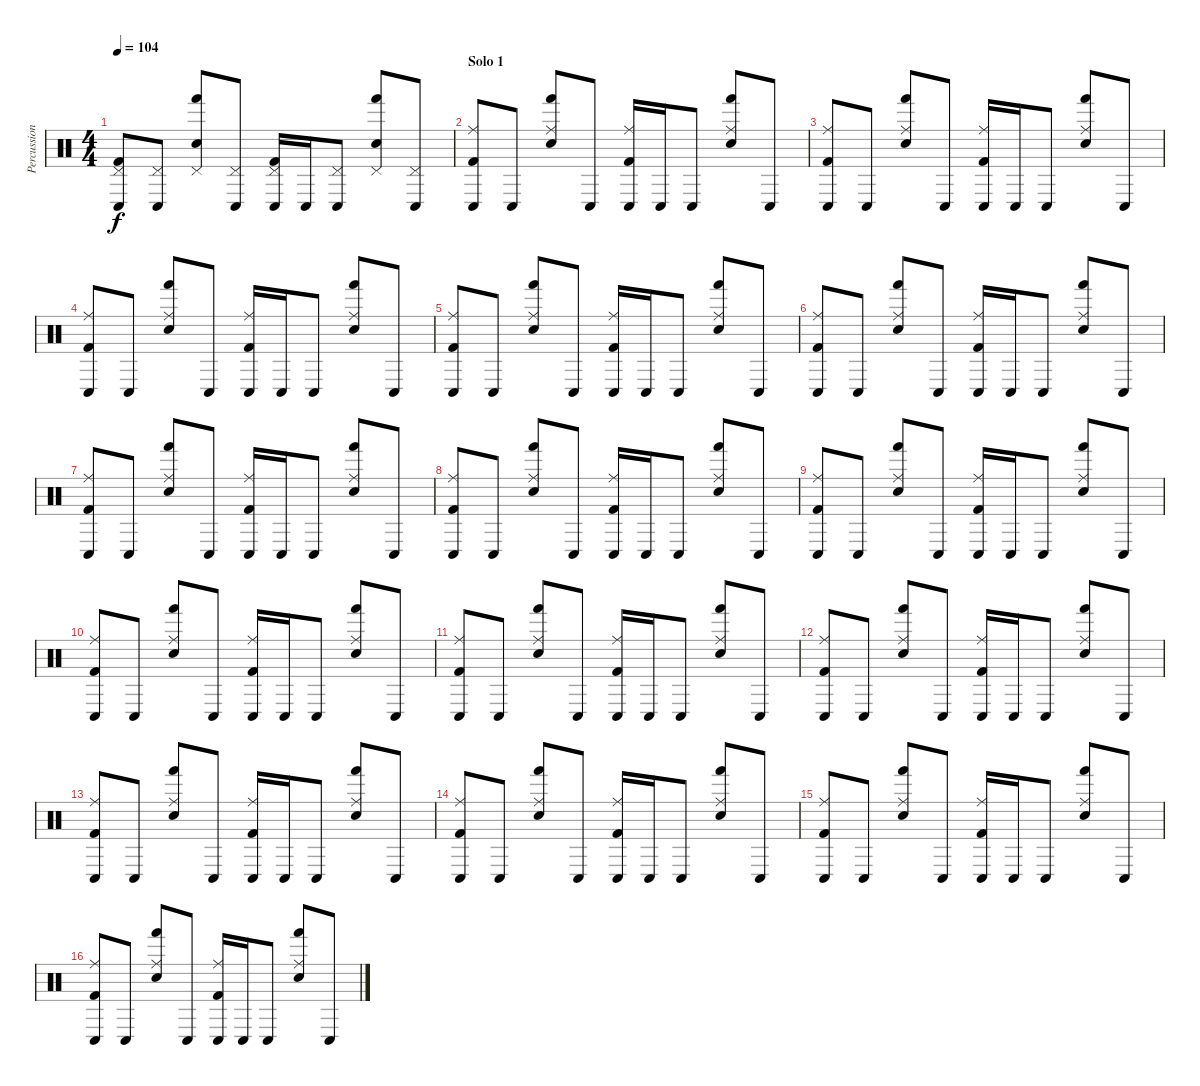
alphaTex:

\track ("Percussions" "Percussion") {instrument percussion}
\staff {score}
\articulation defaults
\ts (4 4)
\tempo 104
\clef neutral
\ks c
("Pedal Hi-Hat (hit)" "Conga low (hit)" "Kick (hit) 2").8{dy f} ("Pedal Hi-Hat (hit)" "Conga low (hit)").8 ("Pedal Hi-Hat (hit)" "Snare (hit) 2" "Hand (hit)").8 ("Pedal Hi-Hat (hit)" "Conga low (hit)").8 ("Pedal Hi-Hat (hit)" "Conga low (hit)" "Kick (hit) 2").16 "Conga low (hit)".16 ("Pedal Hi-Hat (hit)" "Conga low (hit)").8 ("Pedal Hi-Hat (hit)" "Snare (hit) 2" "Hand (hit)").8 ("Pedal Hi-Hat (hit)" "Conga low (hit)").8 |
\section ("" "Solo 1")
("Ride (middle)" "Conga low (hit)" "Kick (hit) 2").8 "Conga low (hit)".8 ("Ride (middle)" "Snare (hit) 2" "Hand (hit)").8 "Conga low (hit)".8 ("Ride (middle)" "Conga low (hit)" "Kick (hit) 2").16 "Conga low (hit)".16 "Conga low (hit)".8 ("Ride (middle)" "Snare (hit) 2" "Hand (hit)").8 "Conga low (hit)".8 |
("Ride (middle)" "Conga low (hit)" "Kick (hit) 2").8 "Conga low (hit)".8 ("Ride (middle)" "Snare (hit) 2" "Hand (hit)").8 "Conga low (hit)".8 ("Ride (middle)" "Conga low (hit)" "Kick (hit) 2").16 "Conga low (hit)".16 "Conga low (hit)".8 ("Ride (middle)" "Snare (hit) 2" "Hand (hit)").8 "Conga low (hit)".8 |
("Ride (middle)" "Conga low (hit)" "Kick (hit) 2").8 "Conga low (hit)".8 ("Ride (middle)" "Snare (hit) 2" "Hand (hit)").8 "Conga low (hit)".8 ("Ride (middle)" "Conga low (hit)" "Kick (hit) 2").16 "Conga low (hit)".16 "Conga low (hit)".8 ("Ride (middle)" "Snare (hit) 2" "Hand (hit)").8 "Conga low (hit)".8 |
("Ride (middle)" "Conga low (hit)" "Kick (hit) 2").8 "Conga low (hit)".8 ("Ride (middle)" "Snare (hit) 2" "Hand (hit)").8 "Conga low (hit)".8 ("Ride (middle)" "Conga low (hit)" "Kick (hit) 2").16 "Conga low (hit)".16 "Conga low (hit)".8 ("Ride (middle)" "Snare (hit) 2" "Hand (hit)").8 "Conga low (hit)".8 |
("Ride (middle)" "Conga low (hit)" "Kick (hit) 2").8 "Conga low (hit)".8 ("Ride (middle)" "Snare (hit) 2" "Hand (hit)").8 "Conga low (hit)".8 ("Ride (middle)" "Conga low (hit)" "Kick (hit) 2").16 "Conga low (hit)".16 "Conga low (hit)".8 ("Ride (middle)" "Snare (hit) 2" "Hand (hit)").8 "Conga low (hit)".8 |
("Ride (middle)" "Conga low (hit)" "Kick (hit) 2").8 "Conga low (hit)".8 ("Ride (middle)" "Snare (hit) 2" "Hand (hit)").8 "Conga low (hit)".8 ("Ride (middle)" "Conga low (hit)" "Kick (hit) 2").16 "Conga low (hit)".16 "Conga low (hit)".8 ("Ride (middle)" "Snare (hit) 2" "Hand (hit)").8 "Conga low (hit)".8 |
("Ride (middle)" "Conga low (hit)" "Kick (hit) 2").8 "Conga low (hit)".8 ("Ride (middle)" "Snare (hit) 2" "Hand (hit)").8 "Conga low (hit)".8 ("Ride (middle)" "Conga low (hit)" "Kick (hit) 2").16 "Conga low (hit)".16 "Conga low (hit)".8 ("Ride (middle)" "Snare (hit) 2" "Hand (hit)").8 "Conga low (hit)".8 |
("Ride (middle)" "Conga low (hit)" "Kick (hit) 2").8 "Conga low (hit)".8 ("Ride (middle)" "Snare (hit) 2" "Hand (hit)").8 "Conga low (hit)".8 ("Ride (middle)" "Conga low (hit)" "Kick (hit) 2").16 "Conga low (hit)".16 "Conga low (hit)".8 ("Ride (middle)" "Snare (hit) 2" "Hand (hit)").8 "Conga low (hit)".8 |
("Ride (middle)" "Conga low (hit)" "Kick (hit) 2").8 "Conga low (hit)".8 ("Ride (middle)" "Snare (hit) 2" "Hand (hit)").8 "Conga low (hit)".8 ("Ride (middle)" "Conga low (hit)" "Kick (hit) 2").16 "Conga low (hit)".16 "Conga low (hit)".8 ("Ride (middle)" "Snare (hit) 2" "Hand (hit)").8 "Conga low (hit)".8 |
("Ride (middle)" "Conga low (hit)" "Kick (hit) 2").8 "Conga low (hit)".8 ("Ride (middle)" "Snare (hit) 2" "Hand (hit)").8 "Conga low (hit)".8 ("Ride (middle)" "Conga low (hit)" "Kick (hit) 2").16 "Conga low (hit)".16 "Conga low (hit)".8 ("Ride (middle)" "Snare (hit) 2" "Hand (hit)").8 "Conga low (hit)".8 |
("Ride (middle)" "Conga low (hit)" "Kick (hit) 2").8 "Conga low (hit)".8 ("Ride (middle)" "Snare (hit) 2" "Hand (hit)").8 "Conga low (hit)".8 ("Ride (middle)" "Conga low (hit)" "Kick (hit) 2").16 "Conga low (hit)".16 "Conga low (hit)".8 ("Ride (middle)" "Snare (hit) 2" "Hand (hit)").8 "Conga low (hit)".8 |
("Ride (middle)" "Conga low (hit)" "Kick (hit) 2").8 "Conga low (hit)".8 ("Ride (middle)" "Snare (hit) 2" "Hand (hit)").8 "Conga low (hit)".8 ("Ride (middle)" "Conga low (hit)" "Kick (hit) 2").16 "Conga low (hit)".16 "Conga low (hit)".8 ("Ride (middle)" "Snare (hit) 2" "Hand (hit)").8 "Conga low (hit)".8 |
("Ride (middle)" "Conga low (hit)" "Kick (hit) 2").8 "Conga low (hit)".8 ("Ride (middle)" "Snare (hit) 2" "Hand (hit)").8 "Conga low (hit)".8 ("Ride (middle)" "Conga low (hit)" "Kick (hit) 2").16 "Conga low (hit)".16 "Conga low (hit)".8 ("Ride (middle)" "Snare (hit) 2" "Hand (hit)").8 "Conga low (hit)".8 |
("Ride (middle)" "Conga low (hit)" "Kick (hit) 2").8 "Conga low (hit)".8 ("Ride (middle)" "Snare (hit) 2" "Hand (hit)").8 "Conga low (hit)".8 ("Ride (middle)" "Conga low (hit)" "Kick (hit) 2").16 "Conga low (hit)".16 "Conga low (hit)".8 ("Ride (middle)" "Snare (hit) 2" "Hand (hit)").8 "Conga low (hit)".8 |
("Ride (middle)" "Conga low (hit)" "Kick (hit) 2").8 "Conga low (hit)".8 ("Ride (middle)" "Snare (hit) 2" "Hand (hit)").8 "Conga low (hit)".8 ("Ride (middle)" "Conga low (hit)" "Kick (hit) 2").16 "Conga low (hit)".16 "Conga low (hit)".8 ("Ride (middle)" "Snare (hit) 2" "Hand (hit)").8 "Conga low (hit)".8
